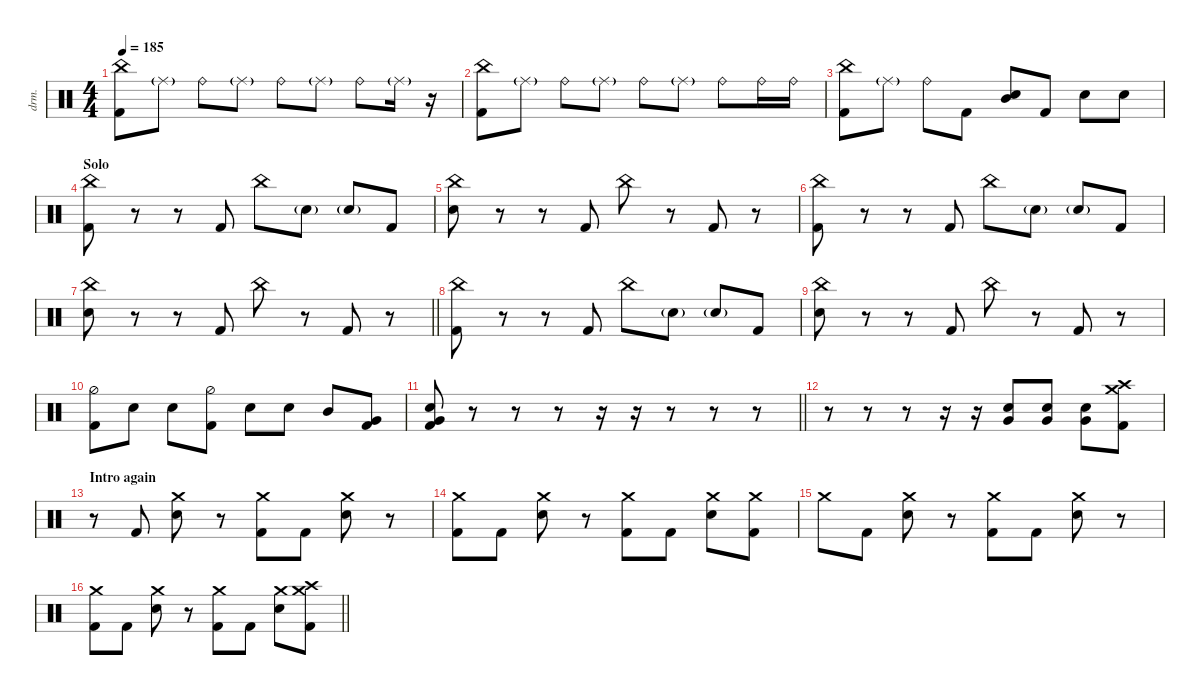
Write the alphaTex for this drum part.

\defaultSystemsLayout 4
\hideDynamics
\bracketExtendMode nobrackets
\track ("Drums - Šimon" "drm.") {instrument percussion}
\staff {score}
\articulation defaults
\ts (4 4)
\tempo 185
\clef neutral
\ks c
("Kick (hit) 2" "China (hit)").8{dy ff} "Ride (middle)"{g}.8 "Ride (bell)".8 "Ride (middle)"{g}.8 "Ride (bell)".8 "Ride (middle)"{g}.8 "Ride (bell)".8 "Ride (middle)"{g}.16 r.16 |
("Kick (hit) 2" "China (hit)").8 "Ride (middle)"{g}.8 "Ride (bell)".8 "Ride (middle)"{g}.8 "Ride (bell)".8 "Ride (middle)"{g}.8 "Ride (bell)".8 "Ride (bell)".16 "Ride (bell)".16 |
("Kick (hit) 2" "China (hit)").8 "Ride (middle)"{g}.8 "Ride (bell)".8 "Kick (hit) 2".8 ("Snare (hit) 2" "Mid Tom (hit)").8 "Kick (hit) 2".8 "Snare (hit) 2".8 "Snare (hit) 2".8 |
\section ("" "Solo")
("Kick (hit) 2" "China (hit)").8 r.8 r.8 "Kick (hit) 2".8 "China (hit)".8 "Snare (hit) 2"{g}.8 "Snare (hit) 2"{g}.8 "Kick (hit) 2".8 |
("China (hit)" "Snare (hit) 2").8 r.8 r.8 "Kick (hit) 2".8 "China (hit)".8 r.8 "Kick (hit) 2".8 r.8 |
("Kick (hit) 2" "China (hit)").8 r.8 r.8 "Kick (hit) 2".8 "China (hit)".8 "Snare (hit) 2"{g}.8 "Snare (hit) 2"{g}.8 "Kick (hit) 2".8 |
\barLineRight lightlight
("China (hit)" "Snare (hit) 2").8 r.8 r.8 "Kick (hit) 2".8 "China (hit)".8 r.8 "Kick (hit) 2".8 r.8 |
("Kick (hit) 2" "China (hit)").8 r.8 r.8 "Kick (hit) 2".8 "China (hit)".8 "Snare (hit) 2"{g}.8 "Snare (hit) 2"{g}.8 "Kick (hit) 2".8 |
("China (hit)" "Snare (hit) 2").8 r.8 r.8 "Kick (hit) 2".8 "China (hit)".8 r.8 "Kick (hit) 2".8 r.8 |
("Kick (hit) 2" "Hi-Hat (half)").8 "Snare (hit) 2".8 "Snare (hit) 2".8 ("Kick (hit) 2" "Hi-Hat (half)").8 "Snare (hit) 2".8 "Snare (hit) 2".8 "Mid Tom (hit)".8 ("Kick (hit) 2" "Very Low Tom (hit)").8 |
\barLineRight lightlight
("Snare (hit) 2" "Kick (hit) 2" "Very Low Tom (hit)").8 r.8 r.8 r.8 r.16 r.16 r.8 r.8 r.8 |
r.8 r.8 r.8 r.16 r.16 ("Snare (hit) 2" "Very Low Tom (hit)").8 ("Snare (hit) 2" "Very Low Tom (hit)").8 ("Snare (hit) 2" "Very Low Tom (hit)").8 ("Crash medium (hit)" "Kick (hit) 2" "Crash high (hit)").8 |
\section ("" "Intro again")
r.8 "Kick (hit) 2".8 ("Snare (hit) 2" "Crash medium (hit)").8 r.8 ("Kick (hit) 2" "Crash medium (hit)").8 "Kick (hit) 2".8 ("Snare (hit) 2" "Crash medium (hit)").8 r.8 |
("Kick (hit) 2" "Crash medium (hit)").8 "Kick (hit) 2".8 ("Snare (hit) 2" "Crash medium (hit)").8 r.8 ("Kick (hit) 2" "Crash medium (hit)").8 "Kick (hit) 2".8 ("Snare (hit) 2" "Crash medium (hit)").8 ("Kick (hit) 2" "Crash medium (hit)").8 |
"Crash medium (hit)".8 "Kick (hit) 2".8 ("Snare (hit) 2" "Crash medium (hit)").8 r.8 ("Kick (hit) 2" "Crash medium (hit)").8 "Kick (hit) 2".8 ("Snare (hit) 2" "Crash medium (hit)").8 r.8 |
\barLineRight lightlight
("Kick (hit) 2" "Crash medium (hit)").8 "Kick (hit) 2".8 ("Snare (hit) 2" "Crash medium (hit)").8 r.8 ("Kick (hit) 2" "Crash medium (hit)").8 "Kick (hit) 2".8 ("Snare (hit) 2" "Crash medium (hit)").8 ("Crash medium (hit)" "Kick (hit) 2" "Crash high (hit)").8
